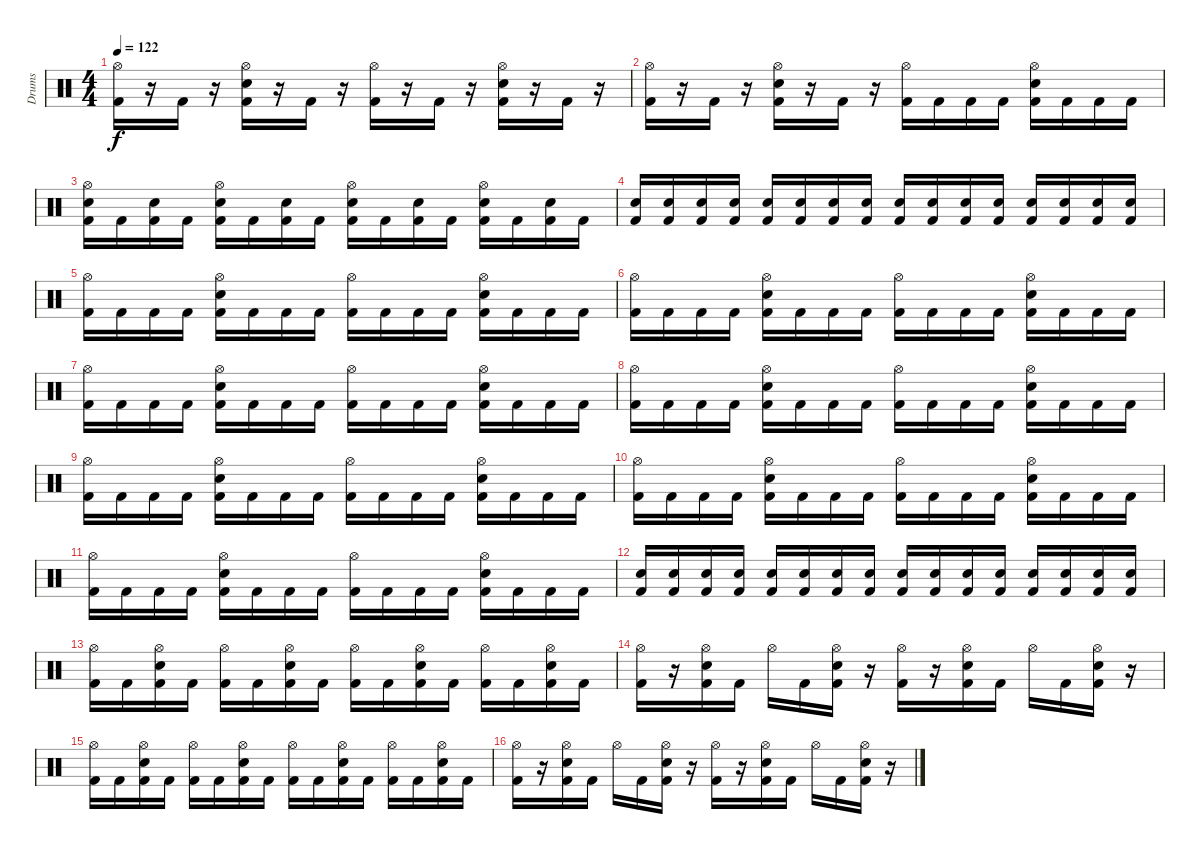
\track ("Drums" "Drums") {instrument percussion}
\staff {score}
\articulation defaults
\ts (4 4)
\tempo 122
\clef neutral
\ks c
("Hi-Hat (open)" "Kick (hit) 2").16{dy f} r.16 "Kick (hit) 2".16 r.16 ("Hi-Hat (open)" "Snare (hit) 2" "Kick (hit) 2").16 r.16 "Kick (hit) 2".16 r.16 ("Hi-Hat (open)" "Kick (hit) 2").16 r.16 "Kick (hit) 2".16 r.16 ("Hi-Hat (open)" "Snare (hit) 2" "Kick (hit) 2").16 r.16 "Kick (hit) 2".16 r.16 |
("Hi-Hat (open)" "Kick (hit) 2").16 r.16 "Kick (hit) 2".16 r.16 ("Hi-Hat (open)" "Snare (hit) 2" "Kick (hit) 2").16 r.16 "Kick (hit) 2".16 r.16 ("Hi-Hat (open)" "Kick (hit) 2").16 "Kick (hit) 2".16 "Kick (hit) 2".16 "Kick (hit) 2".16 ("Hi-Hat (open)" "Snare (hit) 2" "Kick (hit) 2").16 "Kick (hit) 2".16 "Kick (hit) 2".16 "Kick (hit) 2".16 |
("Hi-Hat (open)" "Snare (hit) 2" "Kick (hit) 2").16 "Kick (hit) 2".16 ("Snare (hit) 2" "Kick (hit) 2").16 "Kick (hit) 2".16 ("Hi-Hat (open)" "Snare (hit) 2" "Kick (hit) 2").16 "Kick (hit) 2".16 ("Snare (hit) 2" "Kick (hit) 2").16 "Kick (hit) 2".16 ("Hi-Hat (open)" "Snare (hit) 2" "Kick (hit) 2").16 "Kick (hit) 2".16 ("Snare (hit) 2" "Kick (hit) 2").16 "Kick (hit) 2".16 ("Hi-Hat (open)" "Snare (hit) 2" "Kick (hit) 2").16 "Kick (hit) 2".16 ("Snare (hit) 2" "Kick (hit) 2").16 "Kick (hit) 2".16 |
("Snare (hit) 2" "Kick (hit) 2").16 ("Snare (hit) 2" "Kick (hit) 2").16 ("Snare (hit) 2" "Kick (hit) 2").16 ("Snare (hit) 2" "Kick (hit) 2").16 ("Snare (hit) 2" "Kick (hit) 2").16 ("Snare (hit) 2" "Kick (hit) 2").16 ("Snare (hit) 2" "Kick (hit) 2").16 ("Snare (hit) 2" "Kick (hit) 2").16 ("Snare (hit) 2" "Kick (hit) 2").16 ("Snare (hit) 2" "Kick (hit) 2").16 ("Snare (hit) 2" "Kick (hit) 2").16 ("Snare (hit) 2" "Kick (hit) 2").16 ("Snare (hit) 2" "Kick (hit) 2").16 ("Snare (hit) 2" "Kick (hit) 2").16 ("Snare (hit) 2" "Kick (hit) 2").16 ("Snare (hit) 2" "Kick (hit) 2").16 |
("Hi-Hat (open)" "Kick (hit) 2").16 "Kick (hit) 2".16 "Kick (hit) 2".16 "Kick (hit) 2".16 ("Hi-Hat (open)" "Snare (hit) 2" "Kick (hit) 2").16 "Kick (hit) 2".16 "Kick (hit) 2".16 "Kick (hit) 2".16 ("Hi-Hat (open)" "Kick (hit) 2").16 "Kick (hit) 2".16 "Kick (hit) 2".16 "Kick (hit) 2".16 ("Hi-Hat (open)" "Snare (hit) 2" "Kick (hit) 2").16 "Kick (hit) 2".16 "Kick (hit) 2".16 "Kick (hit) 2".16 |
("Hi-Hat (open)" "Kick (hit) 2").16 "Kick (hit) 2".16 "Kick (hit) 2".16 "Kick (hit) 2".16 ("Hi-Hat (open)" "Snare (hit) 2" "Kick (hit) 2").16 "Kick (hit) 2".16 "Kick (hit) 2".16 "Kick (hit) 2".16 ("Hi-Hat (open)" "Kick (hit) 2").16 "Kick (hit) 2".16 "Kick (hit) 2".16 "Kick (hit) 2".16 ("Hi-Hat (open)" "Snare (hit) 2" "Kick (hit) 2").16 "Kick (hit) 2".16 "Kick (hit) 2".16 "Kick (hit) 2".16 |
("Hi-Hat (open)" "Kick (hit) 2").16 "Kick (hit) 2".16 "Kick (hit) 2".16 "Kick (hit) 2".16 ("Hi-Hat (open)" "Snare (hit) 2" "Kick (hit) 2").16 "Kick (hit) 2".16 "Kick (hit) 2".16 "Kick (hit) 2".16 ("Hi-Hat (open)" "Kick (hit) 2").16 "Kick (hit) 2".16 "Kick (hit) 2".16 "Kick (hit) 2".16 ("Hi-Hat (open)" "Snare (hit) 2" "Kick (hit) 2").16 "Kick (hit) 2".16 "Kick (hit) 2".16 "Kick (hit) 2".16 |
("Hi-Hat (open)" "Kick (hit) 2").16 "Kick (hit) 2".16 "Kick (hit) 2".16 "Kick (hit) 2".16 ("Hi-Hat (open)" "Snare (hit) 2" "Kick (hit) 2").16 "Kick (hit) 2".16 "Kick (hit) 2".16 "Kick (hit) 2".16 ("Hi-Hat (open)" "Kick (hit) 2").16 "Kick (hit) 2".16 "Kick (hit) 2".16 "Kick (hit) 2".16 ("Hi-Hat (open)" "Snare (hit) 2" "Kick (hit) 2").16 "Kick (hit) 2".16 "Kick (hit) 2".16 "Kick (hit) 2".16 |
("Hi-Hat (open)" "Kick (hit) 2").16 "Kick (hit) 2".16 "Kick (hit) 2".16 "Kick (hit) 2".16 ("Hi-Hat (open)" "Snare (hit) 2" "Kick (hit) 2").16 "Kick (hit) 2".16 "Kick (hit) 2".16 "Kick (hit) 2".16 ("Hi-Hat (open)" "Kick (hit) 2").16 "Kick (hit) 2".16 "Kick (hit) 2".16 "Kick (hit) 2".16 ("Hi-Hat (open)" "Snare (hit) 2" "Kick (hit) 2").16 "Kick (hit) 2".16 "Kick (hit) 2".16 "Kick (hit) 2".16 |
("Hi-Hat (open)" "Kick (hit) 2").16 "Kick (hit) 2".16 "Kick (hit) 2".16 "Kick (hit) 2".16 ("Hi-Hat (open)" "Snare (hit) 2" "Kick (hit) 2").16 "Kick (hit) 2".16 "Kick (hit) 2".16 "Kick (hit) 2".16 ("Hi-Hat (open)" "Kick (hit) 2").16 "Kick (hit) 2".16 "Kick (hit) 2".16 "Kick (hit) 2".16 ("Hi-Hat (open)" "Snare (hit) 2" "Kick (hit) 2").16 "Kick (hit) 2".16 "Kick (hit) 2".16 "Kick (hit) 2".16 |
("Hi-Hat (open)" "Kick (hit) 2").16 "Kick (hit) 2".16 "Kick (hit) 2".16 "Kick (hit) 2".16 ("Hi-Hat (open)" "Snare (hit) 2" "Kick (hit) 2").16 "Kick (hit) 2".16 "Kick (hit) 2".16 "Kick (hit) 2".16 ("Hi-Hat (open)" "Kick (hit) 2").16 "Kick (hit) 2".16 "Kick (hit) 2".16 "Kick (hit) 2".16 ("Hi-Hat (open)" "Snare (hit) 2" "Kick (hit) 2").16 "Kick (hit) 2".16 "Kick (hit) 2".16 "Kick (hit) 2".16 |
("Snare (hit) 2" "Kick (hit) 2").16 ("Snare (hit) 2" "Kick (hit) 2").16 ("Snare (hit) 2" "Kick (hit) 2").16 ("Snare (hit) 2" "Kick (hit) 2").16 ("Snare (hit) 2" "Kick (hit) 2").16 ("Snare (hit) 2" "Kick (hit) 2").16 ("Snare (hit) 2" "Kick (hit) 2").16 ("Snare (hit) 2" "Kick (hit) 2").16 ("Snare (hit) 2" "Kick (hit) 2").16 ("Snare (hit) 2" "Kick (hit) 2").16 ("Snare (hit) 2" "Kick (hit) 2").16 ("Snare (hit) 2" "Kick (hit) 2").16 ("Snare (hit) 2" "Kick (hit) 2").16 ("Snare (hit) 2" "Kick (hit) 2").16 ("Snare (hit) 2" "Kick (hit) 2").16 ("Snare (hit) 2" "Kick (hit) 2").16 |
("Hi-Hat (open)" "Kick (hit) 2").16 "Kick (hit) 2".16 ("Hi-Hat (open)" "Snare (hit) 2" "Kick (hit) 2").16 "Kick (hit) 2".16 ("Hi-Hat (open)" "Kick (hit) 2").16 "Kick (hit) 2".16 ("Hi-Hat (open)" "Snare (hit) 2" "Kick (hit) 2").16 "Kick (hit) 2".16 ("Hi-Hat (open)" "Kick (hit) 2").16 "Kick (hit) 2".16 ("Hi-Hat (open)" "Snare (hit) 2" "Kick (hit) 2").16 "Kick (hit) 2".16 ("Hi-Hat (open)" "Kick (hit) 2").16 "Kick (hit) 2".16 ("Hi-Hat (open)" "Snare (hit) 2" "Kick (hit) 2").16 "Kick (hit) 2".16 |
("Hi-Hat (open)" "Kick (hit) 2").16 r.16 ("Hi-Hat (open)" "Snare (hit) 2" "Kick (hit) 2").16 "Kick (hit) 2".16 "Hi-Hat (open)".16 "Kick (hit) 2".16 ("Hi-Hat (open)" "Snare (hit) 2" "Kick (hit) 2").16 r.16 ("Hi-Hat (open)" "Kick (hit) 2").16 r.16 ("Hi-Hat (open)" "Snare (hit) 2" "Kick (hit) 2").16 "Kick (hit) 2".16 "Hi-Hat (open)".16 "Kick (hit) 2".16 ("Hi-Hat (open)" "Snare (hit) 2" "Kick (hit) 2").16 r.16 |
("Hi-Hat (open)" "Kick (hit) 2").16 "Kick (hit) 2".16 ("Hi-Hat (open)" "Snare (hit) 2" "Kick (hit) 2").16 "Kick (hit) 2".16 ("Hi-Hat (open)" "Kick (hit) 2").16 "Kick (hit) 2".16 ("Hi-Hat (open)" "Snare (hit) 2" "Kick (hit) 2").16 "Kick (hit) 2".16 ("Hi-Hat (open)" "Kick (hit) 2").16 "Kick (hit) 2".16 ("Hi-Hat (open)" "Snare (hit) 2" "Kick (hit) 2").16 "Kick (hit) 2".16 ("Hi-Hat (open)" "Kick (hit) 2").16 "Kick (hit) 2".16 ("Hi-Hat (open)" "Snare (hit) 2" "Kick (hit) 2").16 "Kick (hit) 2".16 |
("Hi-Hat (open)" "Kick (hit) 2").16 r.16 ("Hi-Hat (open)" "Snare (hit) 2" "Kick (hit) 2").16 "Kick (hit) 2".16 "Hi-Hat (open)".16 "Kick (hit) 2".16 ("Hi-Hat (open)" "Snare (hit) 2" "Kick (hit) 2").16 r.16 ("Hi-Hat (open)" "Kick (hit) 2").16 r.16 ("Hi-Hat (open)" "Snare (hit) 2" "Kick (hit) 2").16 "Kick (hit) 2".16 "Hi-Hat (open)".16 "Kick (hit) 2".16 ("Hi-Hat (open)" "Snare (hit) 2" "Kick (hit) 2").16 r.16
